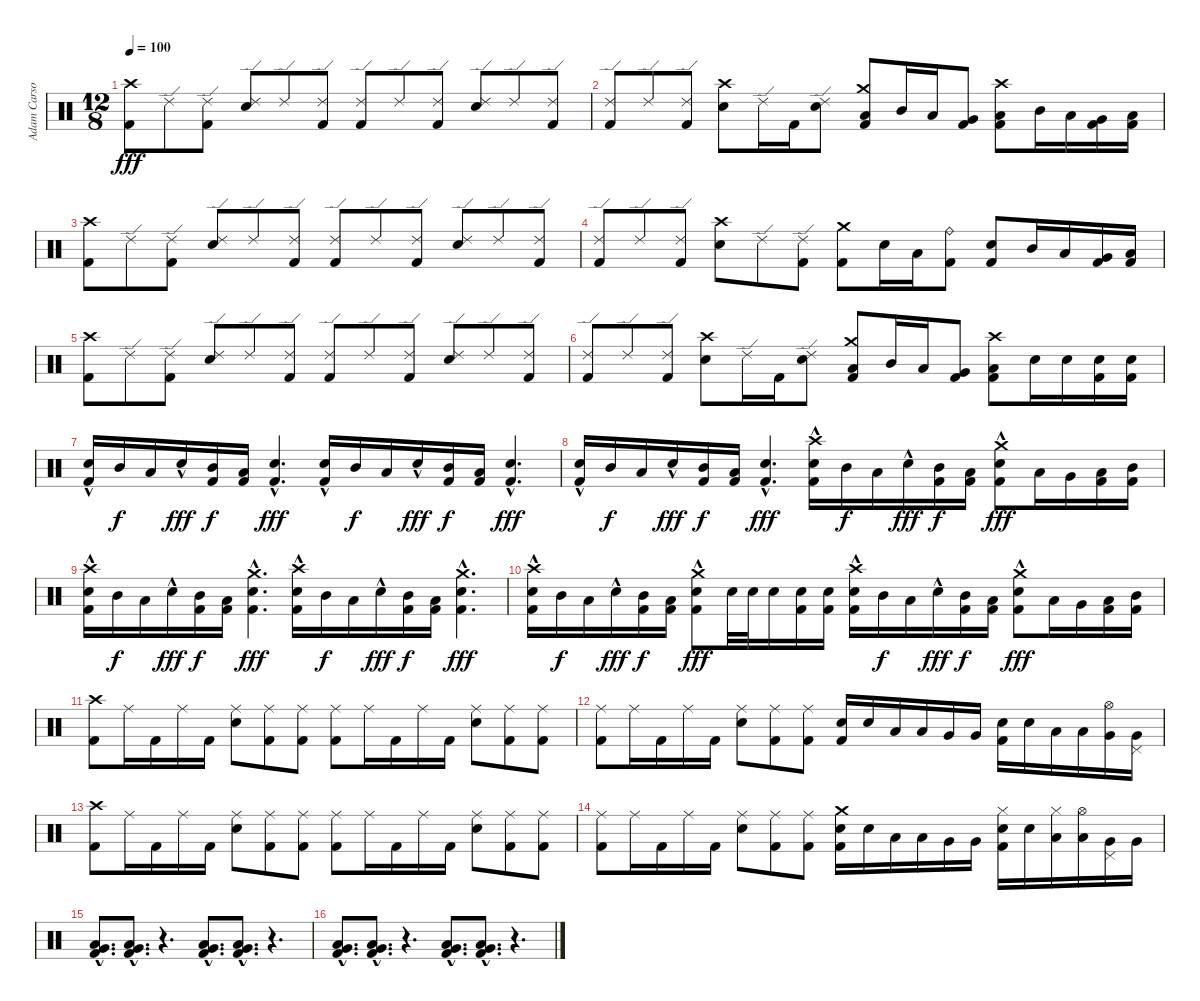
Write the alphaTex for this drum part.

\track ("Adam Carson" "Adam Carso") {instrument percussion}
\staff {score}
\articulation defaults
\ts (12 8)
\tempo 100
\clef neutral
\ks aminor
("Crash high (hit)" "Kick (hit) 2").8{dy fff} "Ride (edge) 2".8 ("Ride (edge) 2" "Kick (hit) 2").8 ("Ride (edge) 2" "Electric Snare (hit)").8 "Ride (edge) 2".8 ("Ride (edge) 2" "Kick (hit) 2").8 ("Ride (edge) 2" "Kick (hit) 2").8 "Ride (edge) 2".8 ("Ride (edge) 2" "Kick (hit) 2").8 ("Ride (edge) 2" "Electric Snare (hit)").8 "Ride (edge) 2".8 ("Ride (edge) 2" "Kick (hit) 2").8 |
("Ride (edge) 2" "Kick (hit) 2").8 "Ride (edge) 2".8 ("Ride (edge) 2" "Kick (hit) 2").8 ("Crash high (hit)" "Electric Snare (hit)").8 "Ride (edge) 2".16 "Kick (hit) 2".16 ("Ride (edge) 2" "Electric Snare (hit)").8 ("Crash medium (hit)" "Low Tom (hit)" "Kick (hit) 2").8 "Mid Tom (hit)".16 "Low Tom (hit)".16 ("Very Low Tom (hit)" "Kick (hit) 2").8 ("Crash high (hit)" "Low Tom (hit)" "Kick (hit) 2").8 "Mid Tom (hit)".16 "Low Tom (hit)".16 ("Very Low Tom (hit)" "Kick (hit) 2").16 ("Low Floor Tom (hit)" "Kick (hit) 2").16 |
("Crash high (hit)" "Kick (hit) 2").8 "Ride (edge) 2".8 ("Ride (edge) 2" "Kick (hit) 2").8 ("Ride (edge) 2" "Electric Snare (hit)").8 "Ride (edge) 2".8 ("Ride (edge) 2" "Kick (hit) 2").8 ("Ride (edge) 2" "Kick (hit) 2").8 "Ride (edge) 2".8 ("Ride (edge) 2" "Kick (hit) 2").8 ("Ride (edge) 2" "Electric Snare (hit)").8 "Ride (edge) 2".8 ("Ride (edge) 2" "Kick (hit) 2").8 |
("Ride (edge) 2" "Kick (hit) 2").8 "Ride (edge) 2".8 ("Ride (edge) 2" "Kick (hit) 2").8 ("Crash high (hit)" "Electric Snare (hit)").8 "Ride (edge) 2".8 ("Ride (edge) 2" "Kick (hit) 2").8 ("Crash medium (hit)" "Kick (hit) 2").8 "Electric Snare (hit)".16 "Low Tom (hit)".16 ("Ride (bell)" "Kick (hit) 2").8 ("Electric Snare (hit)" "Kick (hit) 2").8 "Mid Tom (hit)".16 "Low Tom (hit)".16 ("Very Low Tom (hit)" "Kick (hit) 2").16 ("Low Floor Tom (hit)" "Kick (hit) 2").16 |
("Crash high (hit)" "Kick (hit) 2").8 "Ride (edge) 2".8 ("Ride (edge) 2" "Kick (hit) 2").8 ("Ride (edge) 2" "Electric Snare (hit)").8 "Ride (edge) 2".8 ("Ride (edge) 2" "Kick (hit) 2").8 ("Ride (edge) 2" "Kick (hit) 2").8 "Ride (edge) 2".8 ("Ride (edge) 2" "Kick (hit) 2").8 ("Ride (edge) 2" "Electric Snare (hit)").8 "Ride (edge) 2".8 ("Ride (edge) 2" "Kick (hit) 2").8 |
("Ride (edge) 2" "Kick (hit) 2").8 "Ride (edge) 2".8 ("Ride (edge) 2" "Kick (hit) 2").8 ("Crash high (hit)" "Electric Snare (hit)").8 "Ride (edge) 2".16 "Kick (hit) 2".16 ("Ride (edge) 2" "Electric Snare (hit)").8 ("Crash medium (hit)" "Low Tom (hit)" "Kick (hit) 2").8 "Mid Tom (hit)".16 "Low Tom (hit)".16 ("Very Low Tom (hit)" "Kick (hit) 2").8 ("Crash high (hit)" "Low Tom (hit)" "Kick (hit) 2").8 "Electric Snare (hit)".16 "Electric Snare (hit)".16 ("Electric Snare (hit)" "Kick (hit) 2").16 ("Electric Snare (hit)" "Kick (hit) 2").16 |
("Electric Snare (hit)"{hac} "Kick (hit) 2").16 "Mid Tom (hit)".16{dy f} "Low Tom (hit)".16 "Electric Snare (hit)"{hac}.16{dy fff} ("Mid Tom (hit)" "Kick (hit) 2").16{dy f} ("Low Tom (hit)" "Kick (hit) 2").16 ("Electric Snare (hit)"{hac} "Kick (hit) 2").4{d dy fff} ("Electric Snare (hit)"{hac} "Kick (hit) 2").16 "Mid Tom (hit)".16{dy f} "Low Tom (hit)".16 "Electric Snare (hit)"{hac}.16{dy fff} ("Mid Tom (hit)" "Kick (hit) 2").16{dy f} ("Low Tom (hit)" "Kick (hit) 2").16 ("Electric Snare (hit)"{hac} "Kick (hit) 2").4{d dy fff} |
("Electric Snare (hit)"{hac} "Kick (hit) 2").16 "Mid Tom (hit)".16{dy f} "Low Tom (hit)".16 "Electric Snare (hit)"{hac}.16{dy fff} ("Mid Tom (hit)" "Kick (hit) 2").16{dy f} ("Low Tom (hit)" "Kick (hit) 2").16 ("Electric Snare (hit)"{hac} "Kick (hit) 2").4{d dy fff} ("Crash high (hit)" "Electric Snare (hit)"{hac} "Kick (hit) 2").16 "Mid Tom (hit)".16{dy f} "Low Tom (hit)".16 "Electric Snare (hit)"{hac}.16{dy fff} ("Mid Tom (hit)" "Kick (hit) 2").16{dy f} ("Low Tom (hit)" "Kick (hit) 2").16 ("Crash medium (hit)" "Electric Snare (hit)"{hac} "Kick (hit) 2").8{dy fff} "Low Floor Tom (hit)".16 "Very Low Tom (hit)".16 ("Low Tom (hit)" "Kick (hit) 2").16 ("Mid Tom (hit)" "Kick (hit) 2").16 |
("Crash high (hit)" "Electric Snare (hit)"{hac} "Kick (hit) 2").16 "Mid Tom (hit)".16{dy f} "Low Tom (hit)".16 "Electric Snare (hit)"{hac}.16{dy fff} ("Mid Tom (hit)" "Kick (hit) 2").16{dy f} ("Low Tom (hit)" "Kick (hit) 2").16 ("Crash medium (hit)" "Electric Snare (hit)"{hac} "Kick (hit) 2").4{d dy fff} ("Crash high (hit)" "Electric Snare (hit)"{hac} "Kick (hit) 2").16 "Mid Tom (hit)".16{dy f} "Low Tom (hit)".16 "Electric Snare (hit)"{hac}.16{dy fff} ("Mid Tom (hit)" "Kick (hit) 2").16{dy f} ("Low Tom (hit)" "Kick (hit) 2").16 ("Crash medium (hit)" "Electric Snare (hit)"{hac} "Kick (hit) 2").4{d dy fff} |
("Crash high (hit)" "Electric Snare (hit)"{hac} "Kick (hit) 2").16 "Mid Tom (hit)".16{dy f} "Low Tom (hit)".16 "Electric Snare (hit)"{hac}.16{dy fff} ("Mid Tom (hit)" "Kick (hit) 2").16{dy f} ("Low Tom (hit)" "Kick (hit) 2").16 ("Crash medium (hit)" "Electric Snare (hit)"{hac} "Kick (hit) 2").8{dy fff} "Electric Snare (hit)".32 "Electric Snare (hit)".32 "Electric Snare (hit)".16 ("Electric Snare (hit)" "Kick (hit) 2").16 ("Electric Snare (hit)" "Kick (hit) 2").16 ("Crash high (hit)" "Electric Snare (hit)"{hac} "Kick (hit) 2").16 "Mid Tom (hit)".16{dy f} "Low Tom (hit)".16 "Electric Snare (hit)"{hac}.16{dy fff} ("Mid Tom (hit)" "Kick (hit) 2").16{dy f} ("Low Tom (hit)" "Kick (hit) 2").16 ("Crash medium (hit)" "Electric Snare (hit)"{hac} "Kick (hit) 2").8{dy fff} "Low Floor Tom (hit)".16 "Very Low Tom (hit)".16 ("Low Tom (hit)" "Kick (hit) 2").16 ("Mid Tom (hit)" "Kick (hit) 2").16 |
("Crash high (hit)" "Kick (hit) 2").8 "Ride (middle)".16 "Kick (hit) 2".16 "Ride (middle)".16 "Kick (hit) 2".16 ("Ride (middle)" "Electric Snare (hit)").8 ("Ride (middle)" "Kick (hit) 2").8 ("Ride (middle)" "Kick (hit) 2").8 ("Ride (middle)" "Kick (hit) 2").8 "Ride (middle)".16 "Kick (hit) 2".16 "Ride (middle)".16 "Kick (hit) 2".16 ("Ride (middle)" "Electric Snare (hit)").8 ("Ride (middle)" "Kick (hit) 2").8 ("Ride (middle)" "Kick (hit) 2").8 |
("Ride (middle)" "Kick (hit) 2").8 "Ride (middle)".16 "Kick (hit) 2".16 "Ride (middle)".16 "Kick (hit) 2".16 ("Ride (middle)" "Electric Snare (hit)").8 ("Ride (middle)" "Kick (hit) 2").8 ("Ride (middle)" "Kick (hit) 2").8 ("Electric Snare (hit)" "Kick (hit) 2").16 "Electric Snare (hit)".16 "Low Tom (hit)".16 "Low Tom (hit)".16 "Very Low Tom (hit)".16 "Very Low Tom (hit)".16 ("Electric Snare (hit)" "Kick (hit) 2").16 "Electric Snare (hit)".16 "Low Tom (hit)".16 "Low Tom (hit)".16 ("Hi-Hat (open)" "Very Low Tom (hit)").16 ("Pedal Hi-Hat (hit)" "Very Low Tom (hit)").16 |
("Crash high (hit)" "Kick (hit) 2").8 "Ride (middle)".16 "Kick (hit) 2".16 "Ride (middle)".16 "Kick (hit) 2".16 ("Ride (middle)" "Electric Snare (hit)").8 ("Ride (middle)" "Kick (hit) 2").8 ("Ride (middle)" "Kick (hit) 2").8 ("Ride (middle)" "Kick (hit) 2").8 "Ride (middle)".16 "Kick (hit) 2".16 "Ride (middle)".16 "Kick (hit) 2".16 ("Ride (middle)" "Electric Snare (hit)").8 ("Ride (middle)" "Kick (hit) 2").8 ("Ride (middle)" "Kick (hit) 2").8 |
("Ride (middle)" "Kick (hit) 2").8 "Ride (middle)".16 "Kick (hit) 2".16 "Ride (middle)".16 "Kick (hit) 2".16 ("Ride (middle)" "Electric Snare (hit)").8 ("Ride (middle)" "Kick (hit) 2").8 ("Ride (middle)" "Kick (hit) 2").8 ("Crash medium (hit)" "Electric Snare (hit)" "Kick (hit) 2").16 "Electric Snare (hit)".16 "Low Tom (hit)".16 "Low Tom (hit)".16 "Very Low Tom (hit)".16 "Very Low Tom (hit)".16 ("Hi-Hat (closed)" "Electric Snare (hit)" "Kick (hit) 2").16 "Electric Snare (hit)".16 ("Hi-Hat (closed)" "Low Tom (hit)").16 ("Hi-Hat (open)" "Low Tom (hit)").16 ("Pedal Hi-Hat (hit)" "Very Low Tom (hit)").16 "Very Low Tom (hit)".16 |
("Very Low Tom (hit)"{hac} "Low Floor Tom (hit)"{hac} "Kick (hit) 2"{hac}).8{d} ("Very Low Tom (hit)"{hac} "Low Floor Tom (hit)"{hac} "Kick (hit) 2"{hac}).8{d} r.4{d} ("Very Low Tom (hit)"{hac} "Low Floor Tom (hit)"{hac} "Kick (hit) 2"{hac}).8{d} ("Very Low Tom (hit)"{hac} "Low Floor Tom (hit)"{hac} "Kick (hit) 2"{hac}).8{d} r.4{d} |
("Very Low Tom (hit)"{hac} "Low Floor Tom (hit)"{hac} "Kick (hit) 2"{hac}).8{d} ("Very Low Tom (hit)"{hac} "Low Floor Tom (hit)"{hac} "Kick (hit) 2"{hac}).8{d} r.4{d} ("Very Low Tom (hit)"{hac} "Low Floor Tom (hit)"{hac} "Kick (hit) 2"{hac}).8{d} ("Very Low Tom (hit)"{hac} "Low Floor Tom (hit)"{hac} "Kick (hit) 2"{hac}).8{d} r.4{d}
